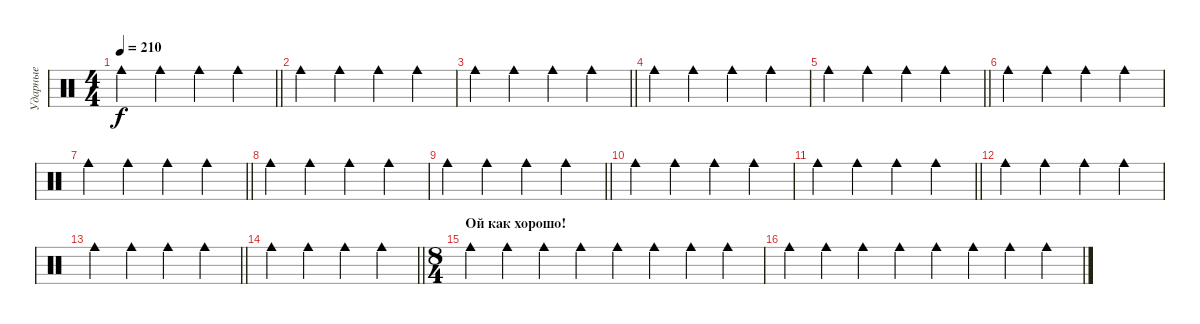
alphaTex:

\track ("Ударные" "Ударные") {mute instrument percussion}
\staff {score}
\articulation defaults
\ts (4 4)
\tempo 210
\clef neutral
\barLineRight lightlight
\ks c "Cowbell medium (hit)".4{dy f} "Cowbell medium (hit)".4 "Cowbell medium (hit)".4 "Cowbell medium (hit)".4
|
"Cowbell medium (hit)".4 "Cowbell medium (hit)".4 "Cowbell medium (hit)".4 "Cowbell medium (hit)".4 |
\barLineRight lightlight "Cowbell medium (hit)".4 "Cowbell medium (hit)".4 "Cowbell medium (hit)".4 "Cowbell medium (hit)".4
|
"Cowbell medium (hit)".4 "Cowbell medium (hit)".4 "Cowbell medium (hit)".4 "Cowbell medium (hit)".4 |
\barLineRight lightlight "Cowbell medium (hit)".4 "Cowbell medium (hit)".4 "Cowbell medium (hit)".4 "Cowbell medium (hit)".4
|
"Cowbell medium (hit)".4 "Cowbell medium (hit)".4 "Cowbell medium (hit)".4 "Cowbell medium (hit)".4 |
\barLineRight lightlight "Cowbell medium (hit)".4 "Cowbell medium (hit)".4 "Cowbell medium (hit)".4 "Cowbell medium (hit)".4
|
"Cowbell medium (hit)".4 "Cowbell medium (hit)".4 "Cowbell medium (hit)".4 "Cowbell medium (hit)".4 |
\barLineRight lightlight "Cowbell medium (hit)".4 "Cowbell medium (hit)".4 "Cowbell medium (hit)".4 "Cowbell medium (hit)".4
|
"Cowbell medium (hit)".4 "Cowbell medium (hit)".4 "Cowbell medium (hit)".4 "Cowbell medium (hit)".4 |
\barLineRight lightlight "Cowbell medium (hit)".4 "Cowbell medium (hit)".4 "Cowbell medium (hit)".4 "Cowbell medium (hit)".4
|
"Cowbell medium (hit)".4 "Cowbell medium (hit)".4 "Cowbell medium (hit)".4 "Cowbell medium (hit)".4 |
\barLineRight lightlight "Cowbell medium (hit)".4 "Cowbell medium (hit)".4 "Cowbell medium (hit)".4 "Cowbell medium (hit)".4
|
\barLineRight lightlight "Cowbell medium (hit)".4 "Cowbell medium (hit)".4 "Cowbell medium (hit)".4 "Cowbell medium (hit)".4
|
\ts (8 4)
\section ("" "Ой как хорошо!")
"Cowbell medium (hit)".4 "Cowbell medium (hit)".4 "Cowbell medium (hit)".4 "Cowbell medium (hit)".4 "Cowbell medium (hit)".4 "Cowbell medium (hit)".4 "Cowbell medium (hit)".4 "Cowbell medium (hit)".4 |
"Cowbell medium (hit)".4 "Cowbell medium (hit)".4 "Cowbell medium (hit)".4 "Cowbell medium (hit)".4 "Cowbell medium (hit)".4 "Cowbell medium (hit)".4 "Cowbell medium (hit)".4 "Cowbell medium (hit)".4
